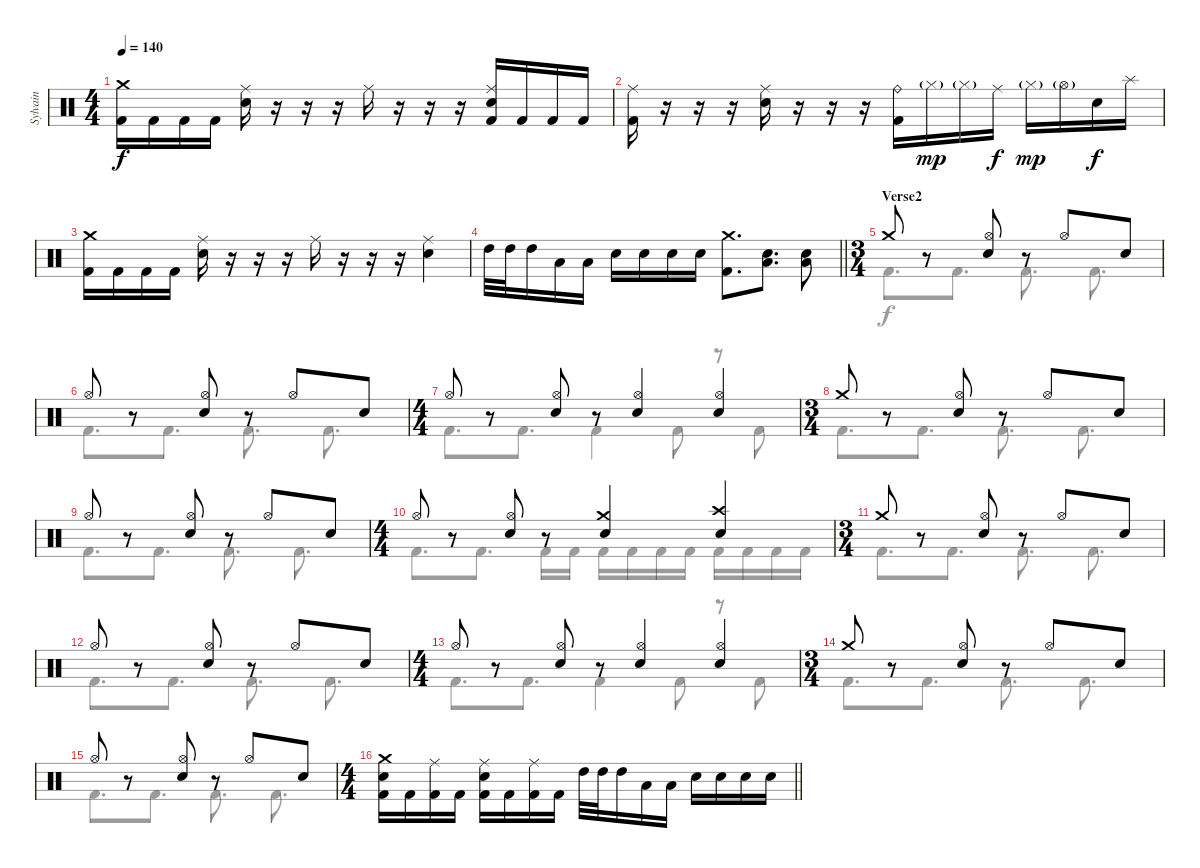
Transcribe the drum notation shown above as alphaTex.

\track ("Sylvain" "Sylvain") {instrument percussion}
\staff {score}
\articulation defaults
\voice
\ts (4 4)
\tempo 140
\clef neutral
\ks c
("Crash medium (hit)" "Kick (hit) 2").16{dy f} "Kick (hit) 2".16 "Kick (hit) 2".16 "Kick (hit) 2".16 ("Ride (middle)" "Snare (hit) 2").16 r.16 r.16 r.16 "Ride (middle)".16 r.16 r.16 r.16 ("Ride (middle)" "Snare (hit) 2" "Kick (hit) 2").16 "Kick (hit) 2".16 "Kick (hit) 2".16 "Kick (hit) 2".16 |
("Ride (middle)" "Kick (hit) 2").16 r.16 r.16 r.16 ("Ride (middle)" "Snare (hit) 2").16 r.16 r.16 r.16 ("Ride (bell)" "Kick (hit) 2").16 "Hi-Hat (closed)"{g}.16{dy mp} "Hi-Hat (closed)"{g}.16 "Ride (middle)".16{dy f} "Hi-Hat (closed)"{g}.16{dy mp} "Hi-Hat (open)"{g}.16 "Snare (hit) 2".16{dy f} "Splash (hit)".16 |
("Crash medium (hit)" "Kick (hit) 2").16 "Kick (hit) 2".16 "Kick (hit) 2".16 "Kick (hit) 2".16 ("Ride (middle)" "Snare (hit) 2").16 r.16 r.16 r.16 "Ride (middle)".16 r.16 r.16 r.16 ("Ride (middle)" "Snare (hit) 2").4 |
\barLineRight lightlight "High Tom (hit)".32 "High Tom (hit)".32 "High Tom (hit)".16 "Low Tom (hit)".16 "Low Tom (hit)".16 "Snare (hit) 2".16 "Snare (hit) 2".16 "Snare (hit) 2".16 "Snare (hit) 2".16
("Crash medium (hit)" "Kick (hit) 2").8{d} ("Snare (hit) 2" "Low Floor Tom (hit)").8{d} ("Snare (hit) 2" "Low Floor Tom (hit)").8 |
\ts (3 4)
\section ("" "Verse2")
"Crash medium (hit)".8 r.8 ("Hi-Hat (open)" "Snare (hit) 2").8 r.8 "Hi-Hat (open)".8 "Snare (hit) 2".8 |
"Hi-Hat (open)".8 r.8 ("Hi-Hat (open)" "Snare (hit) 2").8 r.8 "Hi-Hat (open)".8 "Snare (hit) 2".8 |
\ts (4 4)
"Hi-Hat (open)".8 r.8 ("Hi-Hat (open)" "Snare (hit) 2").8 r.8 ("Hi-Hat (open)" "Snare (hit) 2").4 ("Hi-Hat (open)" "Snare (hit) 2").4 |
\ts (3 4)
"Crash medium (hit)".8 r.8 ("Hi-Hat (open)" "Snare (hit) 2").8 r.8 "Hi-Hat (open)".8 "Snare (hit) 2".8 |
"Hi-Hat (open)".8 r.8 ("Hi-Hat (open)" "Snare (hit) 2").8 r.8 "Hi-Hat (open)".8 "Snare (hit) 2".8 |
\ts (4 4)
"Hi-Hat (open)".8 r.8 ("Hi-Hat (open)" "Snare (hit) 2").8 r.8 ("Crash medium (hit)" "Snare (hit) 2").4 ("Crash high (hit)" "Snare (hit) 2").4 |
\ts (3 4)
"Crash medium (hit)".8 r.8 ("Hi-Hat (open)" "Snare (hit) 2").8 r.8 "Hi-Hat (open)".8 "Snare (hit) 2".8 |
"Hi-Hat (open)".8 r.8 ("Hi-Hat (open)" "Snare (hit) 2").8 r.8 "Hi-Hat (open)".8 "Snare (hit) 2".8 |
\ts (4 4)
"Hi-Hat (open)".8 r.8 ("Hi-Hat (open)" "Snare (hit) 2").8 r.8 ("Hi-Hat (open)" "Snare (hit) 2").4 ("Hi-Hat (open)" "Snare (hit) 2").4 |
\ts (3 4)
"Crash medium (hit)".8 r.8 ("Hi-Hat (open)" "Snare (hit) 2").8 r.8 "Hi-Hat (open)".8 "Snare (hit) 2".8 |
"Hi-Hat (open)".8 r.8 ("Hi-Hat (open)" "Snare (hit) 2").8 r.8 "Hi-Hat (open)".8 "Snare (hit) 2".8 |
\ts (4 4)
\barLineRight lightlight
("Crash medium (hit)" "Snare (hit) 2" "Kick (hit) 2").16 "Kick (hit) 2".16 ("Ride (middle)" "Kick (hit) 2").16 "Kick (hit) 2".16 ("Ride (middle)" "Snare (hit) 2" "Kick (hit) 2").16 "Kick (hit) 2".16 ("Ride (middle)" "Kick (hit) 2").16 "Kick (hit) 2".16 "High Tom (hit)".32 "High Tom (hit)".32 "High Tom (hit)".16 "Low Tom (hit)".16 "Low Tom (hit)".16 "Snare (hit) 2".16 "Snare (hit) 2".16 "Snare (hit) 2".16 "Snare (hit) 2".16
\voice
\clef neutral
\ottava regular
\simile none
\ks c
|
|
|
\barLineRight lightlight
|
"Kick (hit) 2".8{d} "Kick (hit) 2".8{d} "Kick (hit) 2".8{d} "Kick (hit) 2".8{d} |
"Kick (hit) 2".8{d} "Kick (hit) 2".8{d} "Kick (hit) 2".8{d} "Kick (hit) 2".8{d} |
"Kick (hit) 2".8{d} "Kick (hit) 2".8{d} "Kick (hit) 2".4 "Kick (hit) 2".8 r.8 "Kick (hit) 2".8 |
"Kick (hit) 2".8{d} "Kick (hit) 2".8{d} "Kick (hit) 2".8{d} "Kick (hit) 2".8{d} |
"Kick (hit) 2".8{d} "Kick (hit) 2".8{d} "Kick (hit) 2".8{d} "Kick (hit) 2".8{d} |
"Kick (hit) 2".8{d} "Kick (hit) 2".8{d} "Kick (hit) 2".16 "Kick (hit) 2".16 "Kick (hit) 2".16 "Kick (hit) 2".16 "Kick (hit) 2".16 "Kick (hit) 2".16 "Kick (hit) 2".16 "Kick (hit) 2".16 "Kick (hit) 2".16 "Kick (hit) 2".16 |
"Kick (hit) 2".8{d} "Kick (hit) 2".8{d} "Kick (hit) 2".8{d} "Kick (hit) 2".8{d} |
"Kick (hit) 2".8{d} "Kick (hit) 2".8{d} "Kick (hit) 2".8{d} "Kick (hit) 2".8{d} |
"Kick (hit) 2".8{d} "Kick (hit) 2".8{d} "Kick (hit) 2".4 "Kick (hit) 2".8 r.8 "Kick (hit) 2".8 |
"Kick (hit) 2".8{d} "Kick (hit) 2".8{d} "Kick (hit) 2".8{d} "Kick (hit) 2".8{d} |
"Kick (hit) 2".8{d} "Kick (hit) 2".8{d} "Kick (hit) 2".8{d} "Kick (hit) 2".8{d} |
\barLineRight lightlight
